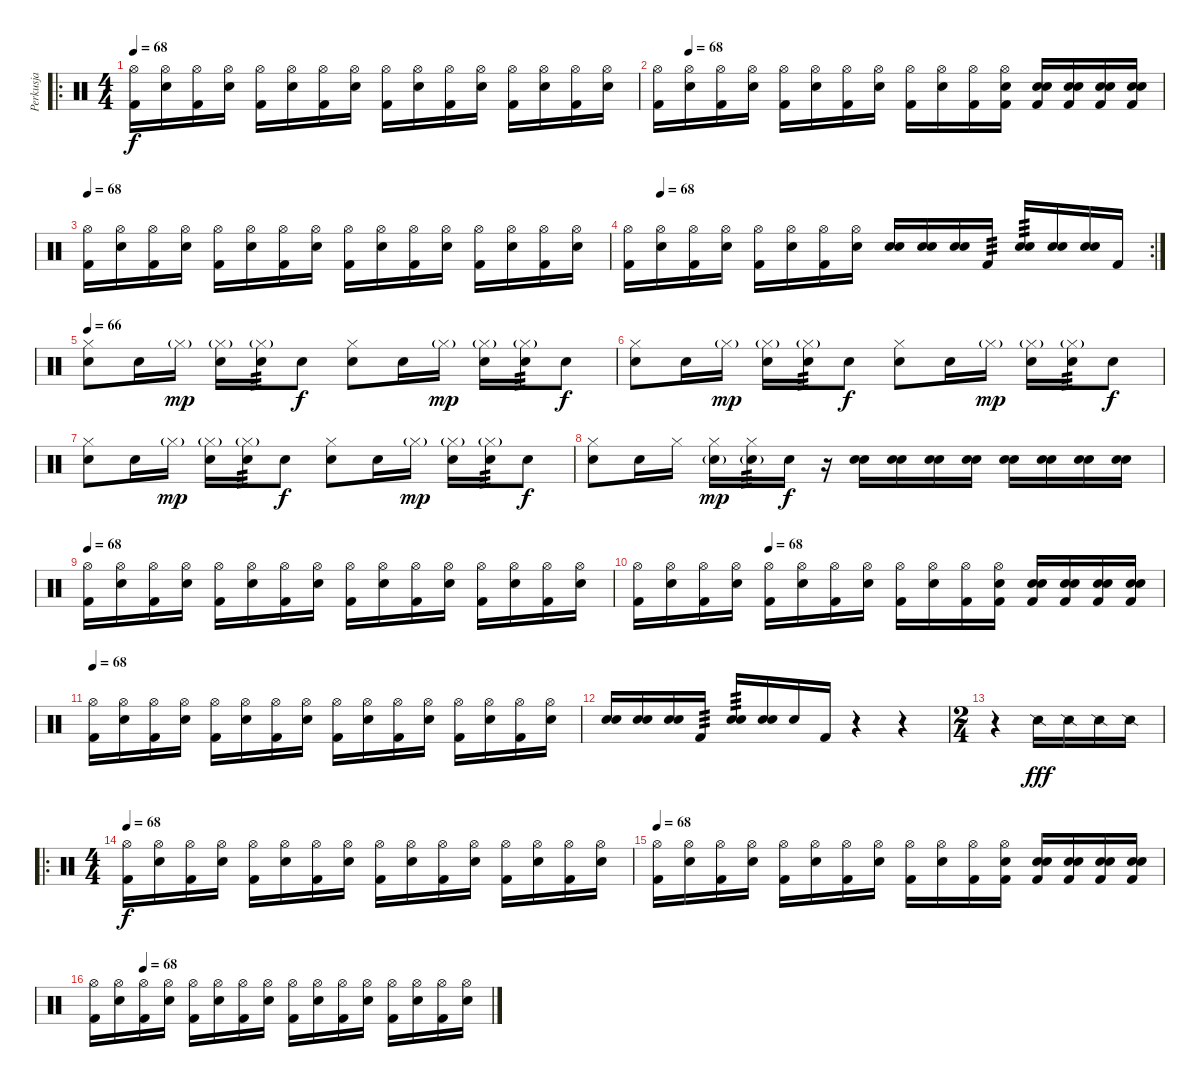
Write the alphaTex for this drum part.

\track ("Perkusja" "Perkusja") {instrument percussion}
\staff {score}
\articulation defaults
\ro
\ts (4 4)
\tempo 68
\clef neutral
\ks c
("Hi-Hat (open)" "Kick (hit) 2").16{dy f} ("Hi-Hat (open)" "Electric Snare (hit)").16 ("Hi-Hat (open)" "Kick (hit) 2").16 ("Hi-Hat (open)" "Electric Snare (hit)").16 ("Hi-Hat (open)" "Kick (hit) 2").16 ("Hi-Hat (open)" "Electric Snare (hit)").16 ("Hi-Hat (open)" "Kick (hit) 2").16 ("Hi-Hat (open)" "Electric Snare (hit)").16 ("Hi-Hat (open)" "Kick (hit) 2").16 ("Hi-Hat (open)" "Electric Snare (hit)").16 ("Hi-Hat (open)" "Kick (hit) 2").16 ("Hi-Hat (open)" "Electric Snare (hit)").16 ("Hi-Hat (open)" "Kick (hit) 2").16 ("Hi-Hat (open)" "Electric Snare (hit)").16 ("Hi-Hat (open)" "Kick (hit) 2").16 ("Hi-Hat (open)" "Electric Snare (hit)").16 |
\tempo (68 0.0625)
("Hi-Hat (open)" "Kick (hit) 2").16 ("Hi-Hat (open)" "Electric Snare (hit)").16 ("Hi-Hat (open)" "Kick (hit) 2").16 ("Hi-Hat (open)" "Electric Snare (hit)").16 ("Hi-Hat (open)" "Kick (hit) 2").16 ("Hi-Hat (open)" "Electric Snare (hit)").16 ("Hi-Hat (open)" "Kick (hit) 2").16 ("Hi-Hat (open)" "Electric Snare (hit)").16 ("Hi-Hat (open)" "Kick (hit) 2").16 ("Hi-Hat (open)" "Electric Snare (hit)").16 ("Hi-Hat (open)" "Kick (hit) 2").16 ("Hi-Hat (open)" "Electric Snare (hit)" "Kick (hit) 2").16 ("Electric Snare (hit)" "Electric Snare (hit)" "Kick (hit) 2").16 ("Electric Snare (hit)" "Electric Snare (hit)" "Kick (hit) 2").16 ("Electric Snare (hit)" "Electric Snare (hit)" "Kick (hit) 2").16 ("Electric Snare (hit)" "Electric Snare (hit)" "Kick (hit) 2").16 |
\tempo 68
("Hi-Hat (open)" "Kick (hit) 2").16 ("Hi-Hat (open)" "Electric Snare (hit)").16 ("Hi-Hat (open)" "Kick (hit) 2").16 ("Hi-Hat (open)" "Electric Snare (hit)").16 ("Hi-Hat (open)" "Kick (hit) 2").16 ("Hi-Hat (open)" "Electric Snare (hit)").16 ("Hi-Hat (open)" "Kick (hit) 2").16 ("Hi-Hat (open)" "Electric Snare (hit)").16 ("Hi-Hat (open)" "Kick (hit) 2").16 ("Hi-Hat (open)" "Electric Snare (hit)").16 ("Hi-Hat (open)" "Kick (hit) 2").16 ("Hi-Hat (open)" "Electric Snare (hit)").16 ("Hi-Hat (open)" "Kick (hit) 2").16 ("Hi-Hat (open)" "Electric Snare (hit)").16 ("Hi-Hat (open)" "Kick (hit) 2").16 ("Hi-Hat (open)" "Electric Snare (hit)").16 |
\rc 2
\tempo (68 0.0625)
("Hi-Hat (open)" "Kick (hit) 2").16 ("Hi-Hat (open)" "Electric Snare (hit)").16 ("Hi-Hat (open)" "Kick (hit) 2").16 ("Hi-Hat (open)" "Electric Snare (hit)").16 ("Hi-Hat (open)" "Kick (hit) 2").16 ("Hi-Hat (open)" "Electric Snare (hit)").16 ("Hi-Hat (open)" "Kick (hit) 2").16 ("Hi-Hat (open)" "Electric Snare (hit)").16 ("Electric Snare (hit)" "Electric Snare (hit)").16 ("Electric Snare (hit)" "Snare (hit) 2").16 ("Electric Snare (hit)" "Snare (hit) 2").16 "Kick (hit) 2".16{tp 3} ("Electric Snare (hit)" "Electric Snare (hit)").16{tp 3} ("Electric Snare (hit)" "Snare (hit) 2").16 ("Electric Snare (hit)" "Snare (hit) 2").16 "Kick (hit) 2".16 |
\tempo 66
("Hi-Hat (closed)" "Snare (hit) 2").8 "Electric Snare (hit)".16 "Hi-Hat (closed)"{g}.16{dy mp} ("Hi-Hat (closed)"{g} "Snare (hit) 2").16 ("Hi-Hat (closed)"{g} "Snare (hit) 2").16{tp 3} "Electric Snare (hit)".8{dy f} ("Hi-Hat (closed)" "Snare (hit) 2").8 "Electric Snare (hit)".16 "Hi-Hat (closed)"{g}.16{dy mp} ("Hi-Hat (closed)"{g} "Snare (hit) 2").16 ("Hi-Hat (closed)"{g} "Snare (hit) 2").16{tp 3} "Electric Snare (hit)".8{dy f} |
("Hi-Hat (closed)" "Snare (hit) 2").8 "Electric Snare (hit)".16 "Hi-Hat (closed)"{g}.16{dy mp} ("Hi-Hat (closed)"{g} "Snare (hit) 2").16 ("Hi-Hat (closed)"{g} "Snare (hit) 2").16{tp 3} "Electric Snare (hit)".8{dy f} ("Hi-Hat (closed)" "Snare (hit) 2").8 "Electric Snare (hit)".16 "Hi-Hat (closed)"{g}.16{dy mp} ("Hi-Hat (closed)"{g} "Snare (hit) 2").16 ("Hi-Hat (closed)"{g} "Snare (hit) 2").16{tp 3} "Electric Snare (hit)".8{dy f} |
("Hi-Hat (closed)" "Snare (hit) 2").8 "Electric Snare (hit)".16 "Hi-Hat (closed)"{g}.16{dy mp} ("Hi-Hat (closed)"{g} "Snare (hit) 2").16 ("Hi-Hat (closed)"{g} "Snare (hit) 2").16{tp 3} "Electric Snare (hit)".8{dy f} ("Hi-Hat (closed)" "Snare (hit) 2").8 "Electric Snare (hit)".16 "Hi-Hat (closed)"{g}.16{dy mp} ("Hi-Hat (closed)"{g} "Snare (hit) 2").16 ("Hi-Hat (closed)"{g} "Snare (hit) 2").16{tp 3} "Electric Snare (hit)".8{dy f} |
("Hi-Hat (closed)" "Snare (hit) 2").8 "Electric Snare (hit)".16 "Hi-Hat (closed)".16 ("Hi-Hat (closed)" "Snare (hit) 2"{g}).16{dy mp} ("Hi-Hat (closed)" "Snare (hit) 2"{g}).16{tp 3} "Electric Snare (hit)".16{dy f} r.16 ("Electric Snare (hit)" "Electric Snare (hit)").16 ("Electric Snare (hit)" "Electric Snare (hit)").16 ("Electric Snare (hit)" "Electric Snare (hit)").16 ("Electric Snare (hit)" "Electric Snare (hit)").16 ("Electric Snare (hit)" "Electric Snare (hit)").16 ("Electric Snare (hit)" "Electric Snare (hit)").16 ("Electric Snare (hit)" "Electric Snare (hit)").16 ("Electric Snare (hit)" "Electric Snare (hit)").16 |
\tempo 68
("Hi-Hat (open)" "Kick (hit) 2").16 ("Hi-Hat (open)" "Electric Snare (hit)").16 ("Hi-Hat (open)" "Kick (hit) 2").16 ("Hi-Hat (open)" "Electric Snare (hit)").16 ("Hi-Hat (open)" "Kick (hit) 2").16 ("Hi-Hat (open)" "Electric Snare (hit)").16 ("Hi-Hat (open)" "Kick (hit) 2").16 ("Hi-Hat (open)" "Electric Snare (hit)").16 ("Hi-Hat (open)" "Kick (hit) 2").16 ("Hi-Hat (open)" "Electric Snare (hit)").16 ("Hi-Hat (open)" "Kick (hit) 2").16 ("Hi-Hat (open)" "Electric Snare (hit)").16 ("Hi-Hat (open)" "Kick (hit) 2").16 ("Hi-Hat (open)" "Electric Snare (hit)").16 ("Hi-Hat (open)" "Kick (hit) 2").16 ("Hi-Hat (open)" "Electric Snare (hit)").16 |
\tempo (68 0.25)
("Hi-Hat (open)" "Kick (hit) 2").16 ("Hi-Hat (open)" "Electric Snare (hit)").16 ("Hi-Hat (open)" "Kick (hit) 2").16 ("Hi-Hat (open)" "Electric Snare (hit)").16 ("Hi-Hat (open)" "Kick (hit) 2").16 ("Hi-Hat (open)" "Electric Snare (hit)").16 ("Hi-Hat (open)" "Kick (hit) 2").16 ("Hi-Hat (open)" "Electric Snare (hit)").16 ("Hi-Hat (open)" "Kick (hit) 2").16 ("Hi-Hat (open)" "Electric Snare (hit)").16 ("Hi-Hat (open)" "Kick (hit) 2").16 ("Hi-Hat (open)" "Electric Snare (hit)" "Kick (hit) 2").16 ("Electric Snare (hit)" "Electric Snare (hit)" "Kick (hit) 2").16 ("Electric Snare (hit)" "Electric Snare (hit)" "Kick (hit) 2").16 ("Electric Snare (hit)" "Electric Snare (hit)" "Kick (hit) 2").16 ("Electric Snare (hit)" "Electric Snare (hit)" "Kick (hit) 2").16 |
\tempo 68
("Hi-Hat (open)" "Kick (hit) 2").16 ("Hi-Hat (open)" "Electric Snare (hit)").16 ("Hi-Hat (open)" "Kick (hit) 2").16 ("Hi-Hat (open)" "Electric Snare (hit)").16 ("Hi-Hat (open)" "Kick (hit) 2").16 ("Hi-Hat (open)" "Electric Snare (hit)").16 ("Hi-Hat (open)" "Kick (hit) 2").16 ("Hi-Hat (open)" "Electric Snare (hit)").16 ("Hi-Hat (open)" "Kick (hit) 2").16 ("Hi-Hat (open)" "Electric Snare (hit)").16 ("Hi-Hat (open)" "Kick (hit) 2").16 ("Hi-Hat (open)" "Electric Snare (hit)").16 ("Hi-Hat (open)" "Kick (hit) 2").16 ("Hi-Hat (open)" "Electric Snare (hit)").16 ("Hi-Hat (open)" "Kick (hit) 2").16 ("Hi-Hat (open)" "Electric Snare (hit)").16 |
("Electric Snare (hit)" "Electric Snare (hit)").16 ("Electric Snare (hit)" "Electric Snare (hit)").16 ("Electric Snare (hit)" "Electric Snare (hit)").16 "Kick (hit) 2".16{tp 3} ("Electric Snare (hit)" "Electric Snare (hit)").16{tp 3} ("Electric Snare (hit)" "Electric Snare (hit)").16 "Electric Snare (hit)".16 "Kick (hit) 2".16 r.4 r.4 |
\ts (2 4)
r.4 "Snare (side stick) 2".16{dy fff} "Snare (side stick) 2".16 "Snare (side stick) 2".16 "Snare (side stick) 2".16 |
\ro
\ts (4 4)
\tempo 68
("Hi-Hat (open)" "Kick (hit) 2").16{dy f} ("Hi-Hat (open)" "Electric Snare (hit)").16 ("Hi-Hat (open)" "Kick (hit) 2").16 ("Hi-Hat (open)" "Electric Snare (hit)").16 ("Hi-Hat (open)" "Kick (hit) 2").16 ("Hi-Hat (open)" "Electric Snare (hit)").16 ("Hi-Hat (open)" "Kick (hit) 2").16 ("Hi-Hat (open)" "Electric Snare (hit)").16 ("Hi-Hat (open)" "Kick (hit) 2").16 ("Hi-Hat (open)" "Electric Snare (hit)").16 ("Hi-Hat (open)" "Kick (hit) 2").16 ("Hi-Hat (open)" "Electric Snare (hit)").16 ("Hi-Hat (open)" "Kick (hit) 2").16 ("Hi-Hat (open)" "Electric Snare (hit)").16 ("Hi-Hat (open)" "Kick (hit) 2").16 ("Hi-Hat (open)" "Electric Snare (hit)").16 |
\tempo 68
("Hi-Hat (open)" "Kick (hit) 2").16 ("Hi-Hat (open)" "Electric Snare (hit)").16 ("Hi-Hat (open)" "Kick (hit) 2").16 ("Hi-Hat (open)" "Electric Snare (hit)").16 ("Hi-Hat (open)" "Kick (hit) 2").16 ("Hi-Hat (open)" "Electric Snare (hit)").16 ("Hi-Hat (open)" "Kick (hit) 2").16 ("Hi-Hat (open)" "Electric Snare (hit)").16 ("Hi-Hat (open)" "Kick (hit) 2").16 ("Hi-Hat (open)" "Electric Snare (hit)").16 ("Hi-Hat (open)" "Kick (hit) 2").16 ("Hi-Hat (open)" "Electric Snare (hit)" "Kick (hit) 2").16 ("Electric Snare (hit)" "Electric Snare (hit)" "Kick (hit) 2").16 ("Electric Snare (hit)" "Electric Snare (hit)" "Kick (hit) 2").16 ("Electric Snare (hit)" "Electric Snare (hit)" "Kick (hit) 2").16 ("Electric Snare (hit)" "Electric Snare (hit)" "Kick (hit) 2").16 |
\tempo (68 0.125)
("Hi-Hat (open)" "Kick (hit) 2").16 ("Hi-Hat (open)" "Electric Snare (hit)").16 ("Hi-Hat (open)" "Kick (hit) 2").16 ("Hi-Hat (open)" "Electric Snare (hit)").16 ("Hi-Hat (open)" "Kick (hit) 2").16 ("Hi-Hat (open)" "Electric Snare (hit)").16 ("Hi-Hat (open)" "Kick (hit) 2").16 ("Hi-Hat (open)" "Electric Snare (hit)").16 ("Hi-Hat (open)" "Kick (hit) 2").16 ("Hi-Hat (open)" "Electric Snare (hit)").16 ("Hi-Hat (open)" "Kick (hit) 2").16 ("Hi-Hat (open)" "Electric Snare (hit)").16 ("Hi-Hat (open)" "Kick (hit) 2").16 ("Hi-Hat (open)" "Electric Snare (hit)").16 ("Hi-Hat (open)" "Kick (hit) 2").16 ("Hi-Hat (open)" "Electric Snare (hit)").16
